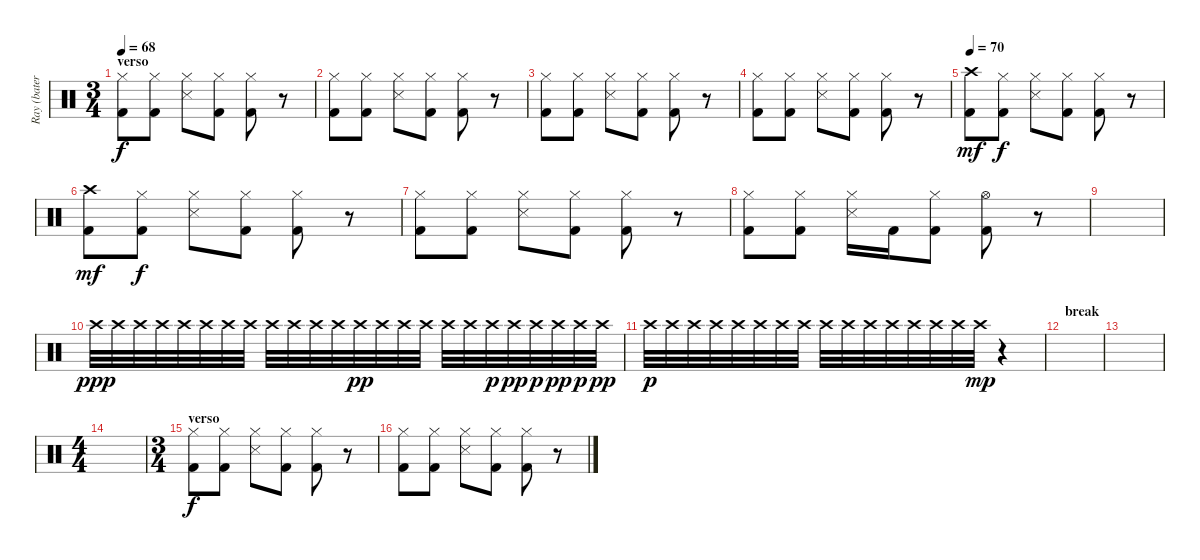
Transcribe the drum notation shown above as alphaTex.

\track ("Ray (batería)" "Ray (bater") {instrument percussion}
\staff {score}
\articulation defaults
\ts (3 4)
\section ("" "verso")
\tempo 68
\clef neutral
\ks c
("Hi-Hat (closed)" "Kick (hit) 2").8{dy f volume 13} ("Hi-Hat (closed)" "Kick (hit) 2").8 ("Hi-Hat (closed)" "Snare (side stick) 3").8 ("Hi-Hat (closed)" "Kick (hit) 2").8 ("Hi-Hat (closed)" "Kick (hit) 2").8 r.8 |
("Hi-Hat (closed)" "Kick (hit) 2").8 ("Hi-Hat (closed)" "Kick (hit) 2").8 ("Hi-Hat (closed)" "Snare (side stick) 3").8 ("Hi-Hat (closed)" "Kick (hit) 2").8 ("Hi-Hat (closed)" "Kick (hit) 2").8 r.8 |
("Hi-Hat (closed)" "Kick (hit) 2").8 ("Hi-Hat (closed)" "Kick (hit) 2").8 ("Hi-Hat (closed)" "Snare (side stick) 3").8 ("Hi-Hat (closed)" "Kick (hit) 2").8 ("Hi-Hat (closed)" "Kick (hit) 2").8 r.8 |
("Hi-Hat (closed)" "Kick (hit) 2").8 ("Hi-Hat (closed)" "Kick (hit) 2").8 ("Hi-Hat (closed)" "Snare (side stick) 3").8 ("Hi-Hat (closed)" "Kick (hit) 2").8 ("Hi-Hat (closed)" "Kick (hit) 2").8 r.8 |
\tempo 70
("Crash high (hit)" "Kick (hit) 2").8{dy mf} ("Hi-Hat (closed)" "Kick (hit) 2").8{dy f} ("Hi-Hat (closed)" "Snare (side stick) 3").8 ("Hi-Hat (closed)" "Kick (hit) 2").8 ("Hi-Hat (closed)" "Kick (hit) 2").8 r.8 |
("Crash high (hit)" "Kick (hit) 2").8{dy mf} ("Hi-Hat (closed)" "Kick (hit) 2").8{dy f} ("Hi-Hat (closed)" "Snare (side stick) 3").8 ("Hi-Hat (closed)" "Kick (hit) 2").8 ("Hi-Hat (closed)" "Kick (hit) 2").8 r.8 |
("Hi-Hat (closed)" "Kick (hit) 2").8 ("Hi-Hat (closed)" "Kick (hit) 2").8 ("Hi-Hat (closed)" "Snare (side stick) 3").8 ("Hi-Hat (closed)" "Kick (hit) 2").8 ("Hi-Hat (closed)" "Kick (hit) 2").8 r.8 |
("Hi-Hat (closed)" "Kick (hit) 2").8 ("Hi-Hat (closed)" "Kick (hit) 2").8 ("Hi-Hat (closed)" "Snare (side stick) 3").16 "Kick (hit) 2".16 ("Hi-Hat (closed)" "Kick (hit) 2").8 ("Hi-Hat (open)" "Kick (hit) 2").8 r.8 |
|
"Crash high (hit)".32{dy ppp} "Crash high (hit)".32 "Crash high (hit)".32 "Crash high (hit)".32 "Crash high (hit)".32 "Crash high (hit)".32 "Crash high (hit)".32 "Crash high (hit)".32 "Crash high (hit)".32 "Crash high (hit)".32 "Crash high (hit)".32 "Crash high (hit)".32 "Crash high (hit)".32{dy pp} "Crash high (hit)".32 "Crash high (hit)".32 "Crash high (hit)".32 "Crash high (hit)".32 "Crash high (hit)".32 "Crash high (hit)".32{dy p} "Crash high (hit)".32{dy pp} "Crash high (hit)".32{dy p} "Crash high (hit)".32{dy pp} "Crash high (hit)".32{dy p} "Crash high (hit)".32{dy pp} |
"Crash high (hit)".32{dy p} "Crash high (hit)".32 "Crash high (hit)".32 "Crash high (hit)".32 "Crash high (hit)".32 "Crash high (hit)".32 "Crash high (hit)".32 "Crash high (hit)".32 "Crash high (hit)".32 "Crash high (hit)".32 "Crash high (hit)".32 "Crash high (hit)".32 "Crash high (hit)".32 "Crash high (hit)".32 "Crash high (hit)".32 "Crash high (hit)".32{dy mp} r.4 |
\section ("" "break")
|
|
\ts (4 4)
|
\ts (3 4)
\section ("" "verso")
("Hi-Hat (closed)" "Kick (hit) 2").8{dy f} ("Hi-Hat (closed)" "Kick (hit) 2").8 ("Hi-Hat (closed)" "Snare (side stick) 3").8 ("Hi-Hat (closed)" "Kick (hit) 2").8 ("Hi-Hat (closed)" "Kick (hit) 2").8 r.8 |
("Hi-Hat (closed)" "Kick (hit) 2").8 ("Hi-Hat (closed)" "Kick (hit) 2").8 ("Hi-Hat (closed)" "Snare (side stick) 3").8 ("Hi-Hat (closed)" "Kick (hit) 2").8 ("Hi-Hat (closed)" "Kick (hit) 2").8 r.8
